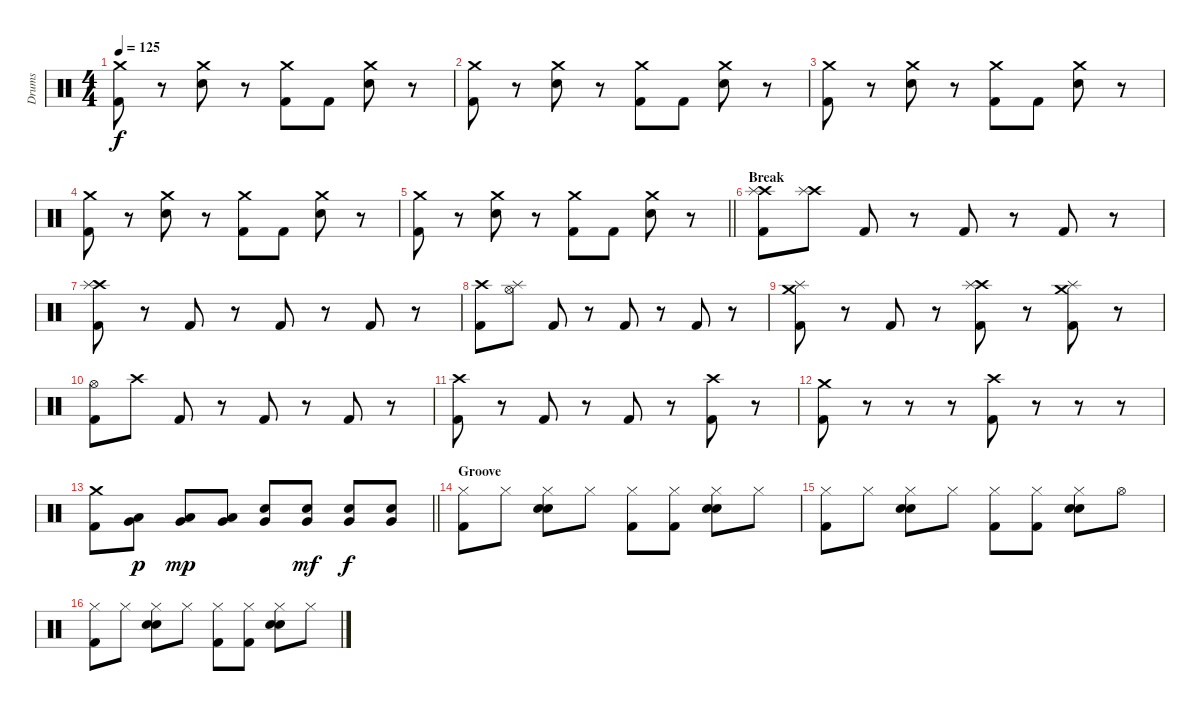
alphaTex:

\track ("Drums" "Drums") {instrument percussion}
\staff {score}
\articulation defaults
\ts (4 4)
\tempo 125
\clef neutral
\ks c
("Crash medium (hit)" "Kick (hit) 2").8{dy f} r.8 ("Crash medium (hit)" "Electric Snare (hit)").8 r.8 ("Crash medium (hit)" "Kick (hit) 2").8 "Kick (hit) 2".8 ("Crash medium (hit)" "Electric Snare (hit)").8 r.8 |
("Crash medium (hit)" "Kick (hit) 2").8 r.8 ("Crash medium (hit)" "Electric Snare (hit)").8 r.8 ("Crash medium (hit)" "Kick (hit) 2").8 "Kick (hit) 2".8 ("Crash medium (hit)" "Electric Snare (hit)").8 r.8 |
("Crash medium (hit)" "Kick (hit) 2").8 r.8 ("Crash medium (hit)" "Electric Snare (hit)").8 r.8 ("Crash medium (hit)" "Kick (hit) 2").8 "Kick (hit) 2".8 ("Crash medium (hit)" "Electric Snare (hit)").8 r.8 |
("Crash medium (hit)" "Kick (hit) 2").8 r.8 ("Crash medium (hit)" "Electric Snare (hit)").8 r.8 ("Crash medium (hit)" "Kick (hit) 2").8 "Kick (hit) 2".8 ("Crash medium (hit)" "Electric Snare (hit)").8 r.8 |
\barLineRight lightlight
("Crash medium (hit)" "Kick (hit) 2").8 r.8 ("Crash medium (hit)" "Electric Snare (hit)").8 r.8 ("Crash medium (hit)" "Kick (hit) 2").8 "Kick (hit) 2".8 ("Crash medium (hit)" "Electric Snare (hit)").8 r.8 |
\section ("" "Break")
("Crash high (hit)" "Splash (hit)" "Kick (hit) 2").8 ("Crash high (hit)" "Splash (hit)").8 "Kick (hit) 2".8 r.8{volume 0} "Kick (hit) 2".8{volume 13} r.8 "Kick (hit) 2".8 r.8 |
("Crash high (hit)" "Splash (hit)" "Kick (hit) 2").8 r.8 "Kick (hit) 2".8 r.8 "Kick (hit) 2".8 r.8 "Kick (hit) 2".8 r.8 |
("Crash high (hit)" "Kick (hit) 2").8 ("Splash (hit)" "Hi-Hat (open)").8 "Kick (hit) 2".8 r.8 "Kick (hit) 2".8 r.8 "Kick (hit) 2".8 r.8 |
("Crash medium (hit)" "Splash (hit)" "Kick (hit) 2").8 r.8 "Kick (hit) 2".8 r.8 ("Crash high (hit)" "Splash (hit)" "Kick (hit) 2").8 r.8 ("Crash medium (hit)" "Splash (hit)" "Kick (hit) 2").8 r.8 |
("Hi-Hat (open)" "Kick (hit) 2").8 "Crash high (hit)".8 "Kick (hit) 2".8 r.8 "Kick (hit) 2".8 r.8 "Kick (hit) 2".8 r.8 |
("Crash high (hit)" "Kick (hit) 2").8 r.8 "Kick (hit) 2".8 r.8 "Kick (hit) 2".8 r.8 ("Crash high (hit)" "Kick (hit) 2").8 r.8 |
("Crash medium (hit)" "Kick (hit) 2").8 r.8 r.8 r.8 ("Crash high (hit)" "Kick (hit) 2").8 r.8 r.8 r.8 |
\barLineRight lightlight
("Crash medium (hit)" "Kick (hit) 2").8 ("Low Floor Tom (hit)" "Very Low Tom (hit)").8{dy p} ("Low Floor Tom (hit)" "Very Low Tom (hit)").8{dy mp} ("Low Floor Tom (hit)" "Very Low Tom (hit)").8 ("Electric Snare (hit)" "Very Low Tom (hit)").8 ("Electric Snare (hit)" "Very Low Tom (hit)").8{dy mf} ("Electric Snare (hit)" "Very Low Tom (hit)").8{dy f} ("Electric Snare (hit)" "Very Low Tom (hit)").8 |
\section ("" "Groove")
("Hi-Hat (closed)" "Kick (hit) 2").8 "Hi-Hat (closed)".8 ("Hi-Hat (closed)" "Electric Snare (hit)" "Snare (hit) 2").8 "Hi-Hat (closed)".8 ("Hi-Hat (closed)" "Kick (hit) 2").8 ("Hi-Hat (closed)" "Kick (hit) 2").8 ("Hi-Hat (closed)" "Electric Snare (hit)" "Snare (hit) 2").8 "Hi-Hat (closed)".8 |
("Hi-Hat (closed)" "Kick (hit) 2").8 "Hi-Hat (closed)".8 ("Hi-Hat (closed)" "Electric Snare (hit)" "Snare (hit) 2").8 "Hi-Hat (closed)".8 ("Hi-Hat (closed)" "Kick (hit) 2").8 ("Hi-Hat (closed)" "Kick (hit) 2").8 ("Hi-Hat (closed)" "Electric Snare (hit)" "Snare (hit) 2").8 "Hi-Hat (open)".8 |
("Hi-Hat (closed)" "Kick (hit) 2").8 "Hi-Hat (closed)".8 ("Hi-Hat (closed)" "Electric Snare (hit)" "Snare (hit) 2").8 "Hi-Hat (closed)".8 ("Hi-Hat (closed)" "Kick (hit) 2").8 ("Hi-Hat (closed)" "Kick (hit) 2").8 ("Hi-Hat (closed)" "Electric Snare (hit)" "Snare (hit) 2").8 "Hi-Hat (closed)".8
